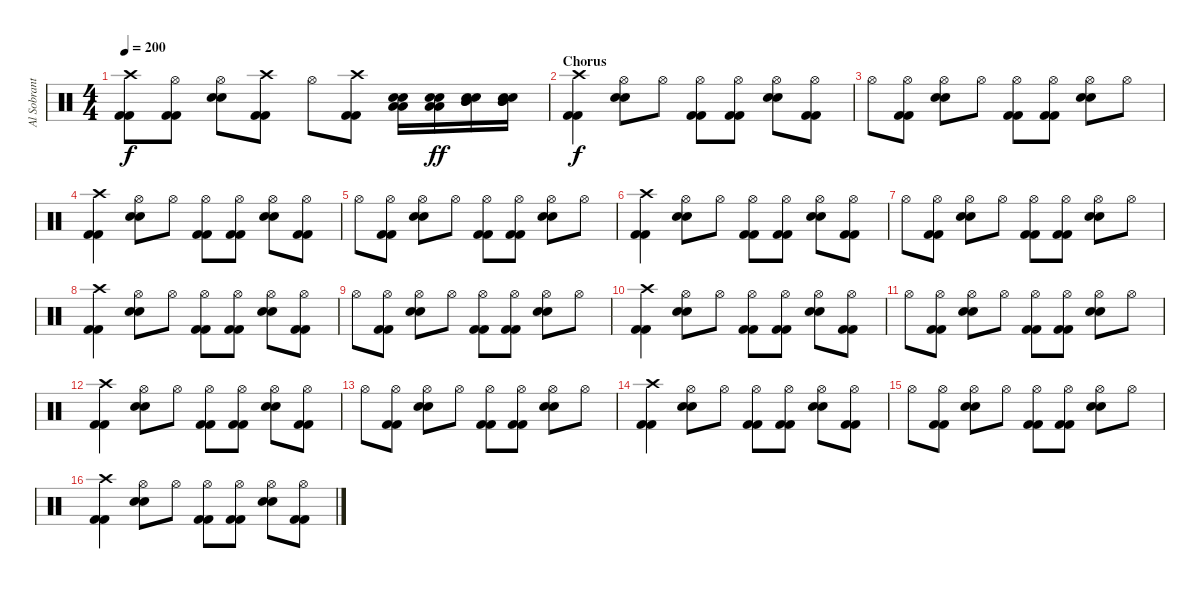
\track ("Al Sobrante (Drums)" "Al Sobrant") {instrument percussion}
\staff {score}
\articulation defaults
\ts (4 4)
\tempo 200
\clef neutral
\ks c
("Kick (hit) 2" "Kick (hit) 2" "Crash high (hit)").8{dy f} ("Kick (hit) 2" "Kick (hit) 2" "Hi-Hat (open)").8 ("Electric Snare (hit)" "Electric Snare (hit)" "Hi-Hat (open)").8 ("Kick (hit) 2" "Kick (hit) 2" "Crash high (hit)").8 "Hi-Hat (open)".8 ("Kick (hit) 2" "Kick (hit) 2" "Crash high (hit)").8 ("Electric Snare (hit)" "Electric Snare (hit)" "Low Floor Tom (hit)" "Low Floor Tom (hit)").16 ("Electric Snare (hit)" "Electric Snare (hit)" "Low Floor Tom (hit)" "Low Floor Tom (hit)").16{dy ff} ("Electric Snare (hit)" "Electric Snare (hit)" "Mid Tom (hit)" "Mid Tom (hit)").16 ("Electric Snare (hit)" "Electric Snare (hit)" "Mid Tom (hit)" "Mid Tom (hit)").16 |
\section ("" "Chorus")
("Kick (hit) 2" "Kick (hit) 2" "Crash high (hit)").4{dy f} ("Electric Snare (hit)" "Electric Snare (hit)" "Hi-Hat (open)").8 "Hi-Hat (open)".8 ("Kick (hit) 2" "Kick (hit) 2" "Hi-Hat (open)").8 ("Kick (hit) 2" "Kick (hit) 2" "Hi-Hat (open)").8 ("Electric Snare (hit)" "Electric Snare (hit)" "Hi-Hat (open)").8 ("Kick (hit) 2" "Kick (hit) 2" "Hi-Hat (open)").8 |
"Hi-Hat (open)".8 ("Kick (hit) 2" "Kick (hit) 2" "Hi-Hat (open)").8 ("Electric Snare (hit)" "Electric Snare (hit)" "Hi-Hat (open)").8 "Hi-Hat (open)".8 ("Kick (hit) 2" "Kick (hit) 2" "Hi-Hat (open)").8 ("Kick (hit) 2" "Kick (hit) 2" "Hi-Hat (open)").8 ("Electric Snare (hit)" "Electric Snare (hit)" "Hi-Hat (open)").8 "Hi-Hat (open)".8 |
("Kick (hit) 2" "Kick (hit) 2" "Crash high (hit)").4 ("Electric Snare (hit)" "Electric Snare (hit)" "Hi-Hat (open)").8 "Hi-Hat (open)".8 ("Kick (hit) 2" "Kick (hit) 2" "Hi-Hat (open)").8 ("Kick (hit) 2" "Kick (hit) 2" "Hi-Hat (open)").8 ("Electric Snare (hit)" "Electric Snare (hit)" "Hi-Hat (open)").8 ("Kick (hit) 2" "Kick (hit) 2" "Hi-Hat (open)").8 |
"Hi-Hat (open)".8 ("Kick (hit) 2" "Kick (hit) 2" "Hi-Hat (open)").8 ("Electric Snare (hit)" "Electric Snare (hit)" "Hi-Hat (open)").8 "Hi-Hat (open)".8 ("Kick (hit) 2" "Kick (hit) 2" "Hi-Hat (open)").8 ("Kick (hit) 2" "Kick (hit) 2" "Hi-Hat (open)").8 ("Electric Snare (hit)" "Electric Snare (hit)" "Hi-Hat (open)").8 "Hi-Hat (open)".8 |
("Kick (hit) 2" "Kick (hit) 2" "Crash high (hit)").4 ("Electric Snare (hit)" "Electric Snare (hit)" "Hi-Hat (open)").8 "Hi-Hat (open)".8 ("Kick (hit) 2" "Kick (hit) 2" "Hi-Hat (open)").8 ("Kick (hit) 2" "Kick (hit) 2" "Hi-Hat (open)").8 ("Electric Snare (hit)" "Electric Snare (hit)" "Hi-Hat (open)").8 ("Kick (hit) 2" "Kick (hit) 2" "Hi-Hat (open)").8 |
"Hi-Hat (open)".8 ("Kick (hit) 2" "Kick (hit) 2" "Hi-Hat (open)").8 ("Electric Snare (hit)" "Electric Snare (hit)" "Hi-Hat (open)").8 "Hi-Hat (open)".8 ("Kick (hit) 2" "Kick (hit) 2" "Hi-Hat (open)").8 ("Kick (hit) 2" "Kick (hit) 2" "Hi-Hat (open)").8 ("Electric Snare (hit)" "Electric Snare (hit)" "Hi-Hat (open)").8 "Hi-Hat (open)".8 |
("Kick (hit) 2" "Kick (hit) 2" "Crash high (hit)").4 ("Electric Snare (hit)" "Electric Snare (hit)" "Hi-Hat (open)").8 "Hi-Hat (open)".8 ("Kick (hit) 2" "Kick (hit) 2" "Hi-Hat (open)").8 ("Kick (hit) 2" "Kick (hit) 2" "Hi-Hat (open)").8 ("Electric Snare (hit)" "Electric Snare (hit)" "Hi-Hat (open)").8 ("Kick (hit) 2" "Kick (hit) 2" "Hi-Hat (open)").8 |
"Hi-Hat (open)".8 ("Kick (hit) 2" "Kick (hit) 2" "Hi-Hat (open)").8 ("Electric Snare (hit)" "Electric Snare (hit)" "Hi-Hat (open)").8 "Hi-Hat (open)".8 ("Kick (hit) 2" "Kick (hit) 2" "Hi-Hat (open)").8 ("Kick (hit) 2" "Kick (hit) 2" "Hi-Hat (open)").8 ("Electric Snare (hit)" "Electric Snare (hit)" "Hi-Hat (open)").8 "Hi-Hat (open)".8 |
("Kick (hit) 2" "Kick (hit) 2" "Crash high (hit)").4 ("Electric Snare (hit)" "Electric Snare (hit)" "Hi-Hat (open)").8 "Hi-Hat (open)".8 ("Kick (hit) 2" "Kick (hit) 2" "Hi-Hat (open)").8 ("Kick (hit) 2" "Kick (hit) 2" "Hi-Hat (open)").8 ("Electric Snare (hit)" "Electric Snare (hit)" "Hi-Hat (open)").8 ("Kick (hit) 2" "Kick (hit) 2" "Hi-Hat (open)").8 |
"Hi-Hat (open)".8 ("Kick (hit) 2" "Kick (hit) 2" "Hi-Hat (open)").8 ("Electric Snare (hit)" "Electric Snare (hit)" "Hi-Hat (open)").8 "Hi-Hat (open)".8 ("Kick (hit) 2" "Kick (hit) 2" "Hi-Hat (open)").8 ("Kick (hit) 2" "Kick (hit) 2" "Hi-Hat (open)").8 ("Electric Snare (hit)" "Electric Snare (hit)" "Hi-Hat (open)").8 "Hi-Hat (open)".8 |
("Kick (hit) 2" "Kick (hit) 2" "Crash high (hit)").4 ("Electric Snare (hit)" "Electric Snare (hit)" "Hi-Hat (open)").8 "Hi-Hat (open)".8 ("Kick (hit) 2" "Kick (hit) 2" "Hi-Hat (open)").8 ("Kick (hit) 2" "Kick (hit) 2" "Hi-Hat (open)").8 ("Electric Snare (hit)" "Electric Snare (hit)" "Hi-Hat (open)").8 ("Kick (hit) 2" "Kick (hit) 2" "Hi-Hat (open)").8 |
"Hi-Hat (open)".8 ("Kick (hit) 2" "Kick (hit) 2" "Hi-Hat (open)").8 ("Electric Snare (hit)" "Electric Snare (hit)" "Hi-Hat (open)").8 "Hi-Hat (open)".8 ("Kick (hit) 2" "Kick (hit) 2" "Hi-Hat (open)").8 ("Kick (hit) 2" "Kick (hit) 2" "Hi-Hat (open)").8 ("Electric Snare (hit)" "Electric Snare (hit)" "Hi-Hat (open)").8 "Hi-Hat (open)".8 |
("Kick (hit) 2" "Kick (hit) 2" "Crash high (hit)").4 ("Electric Snare (hit)" "Electric Snare (hit)" "Hi-Hat (open)").8 "Hi-Hat (open)".8 ("Kick (hit) 2" "Kick (hit) 2" "Hi-Hat (open)").8 ("Kick (hit) 2" "Kick (hit) 2" "Hi-Hat (open)").8 ("Electric Snare (hit)" "Electric Snare (hit)" "Hi-Hat (open)").8 ("Kick (hit) 2" "Kick (hit) 2" "Hi-Hat (open)").8 |
"Hi-Hat (open)".8 ("Kick (hit) 2" "Kick (hit) 2" "Hi-Hat (open)").8 ("Electric Snare (hit)" "Electric Snare (hit)" "Hi-Hat (open)").8 "Hi-Hat (open)".8 ("Kick (hit) 2" "Kick (hit) 2" "Hi-Hat (open)").8 ("Kick (hit) 2" "Kick (hit) 2" "Hi-Hat (open)").8 ("Electric Snare (hit)" "Electric Snare (hit)" "Hi-Hat (open)").8 "Hi-Hat (open)".8 |
("Kick (hit) 2" "Kick (hit) 2" "Crash high (hit)").4 ("Electric Snare (hit)" "Electric Snare (hit)" "Hi-Hat (open)").8 "Hi-Hat (open)".8 ("Kick (hit) 2" "Kick (hit) 2" "Hi-Hat (open)").8 ("Kick (hit) 2" "Kick (hit) 2" "Hi-Hat (open)").8 ("Electric Snare (hit)" "Electric Snare (hit)" "Hi-Hat (open)").8 ("Kick (hit) 2" "Kick (hit) 2" "Hi-Hat (open)").8
